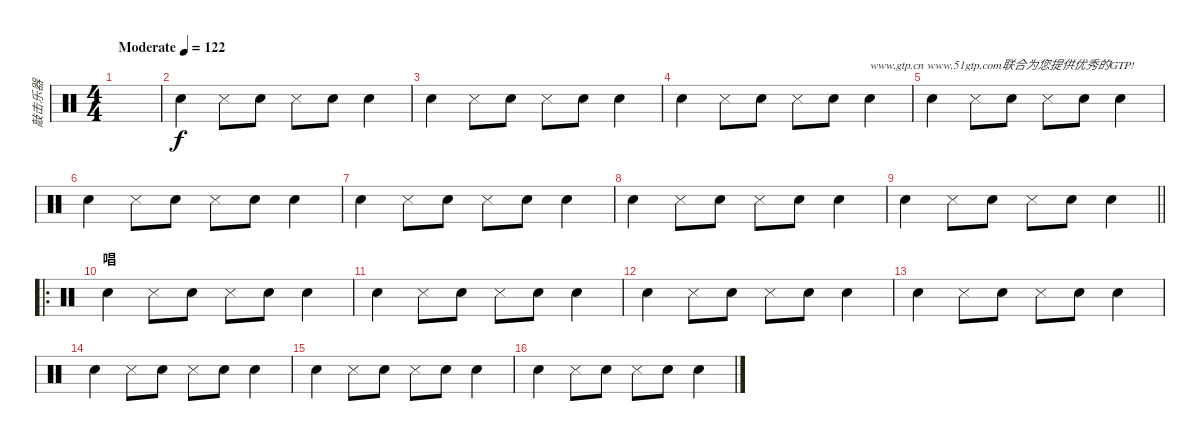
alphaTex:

\track ("敲击乐器" "敲击乐器") {instrument percussion}
\staff {score}
\articulation defaults
\ts (4 4)
\tempo (122 "Moderate")
\clef neutral
\ks c
|
"Snare (hit) 2".4 "Snare (side stick) 3".8 "Snare (hit) 2".8 "Snare (side stick) 3".8 "Snare (hit) 2".8 "Snare (hit) 2".4 |
"Snare (hit) 2".4 "Snare (side stick) 3".8 "Snare (hit) 2".8 "Snare (side stick) 3".8 "Snare (hit) 2".8 "Snare (hit) 2".4 |
"Snare (hit) 2".4 "Snare (side stick) 3".8 "Snare (hit) 2".8 "Snare (side stick) 3".8 "Snare (hit) 2".8 "Snare (hit) 2".4{txt "www.gtp.cn www.51gtp.com联合为您提供优秀的GTP!"} |
"Snare (hit) 2".4 "Snare (side stick) 3".8 "Snare (hit) 2".8 "Snare (side stick) 3".8 "Snare (hit) 2".8 "Snare (hit) 2".4 |
"Snare (hit) 2".4 "Snare (side stick) 3".8 "Snare (hit) 2".8 "Snare (side stick) 3".8 "Snare (hit) 2".8 "Snare (hit) 2".4 |
"Snare (hit) 2".4 "Snare (side stick) 3".8 "Snare (hit) 2".8 "Snare (side stick) 3".8 "Snare (hit) 2".8 "Snare (hit) 2".4 |
"Snare (hit) 2".4 "Snare (side stick) 3".8 "Snare (hit) 2".8 "Snare (side stick) 3".8 "Snare (hit) 2".8 "Snare (hit) 2".4 |
\barLineRight lightlight "Snare (hit) 2".4 "Snare (side stick) 3".8 "Snare (hit) 2".8 "Snare (side stick) 3".8 "Snare (hit) 2".8 "Snare (hit) 2".4
|
\ro
\section ("" "唱")
"Snare (hit) 2".4 "Snare (side stick) 3".8 "Snare (hit) 2".8 "Snare (side stick) 3".8 "Snare (hit) 2".8 "Snare (hit) 2".4 |
"Snare (hit) 2".4 "Snare (side stick) 3".8 "Snare (hit) 2".8 "Snare (side stick) 3".8 "Snare (hit) 2".8 "Snare (hit) 2".4 |
"Snare (hit) 2".4 "Snare (side stick) 3".8 "Snare (hit) 2".8 "Snare (side stick) 3".8 "Snare (hit) 2".8 "Snare (hit) 2".4 |
"Snare (hit) 2".4 "Snare (side stick) 3".8 "Snare (hit) 2".8 "Snare (side stick) 3".8 "Snare (hit) 2".8 "Snare (hit) 2".4 |
"Snare (hit) 2".4 "Snare (side stick) 3".8 "Snare (hit) 2".8 "Snare (side stick) 3".8 "Snare (hit) 2".8 "Snare (hit) 2".4 |
"Snare (hit) 2".4 "Snare (side stick) 3".8 "Snare (hit) 2".8 "Snare (side stick) 3".8 "Snare (hit) 2".8 "Snare (hit) 2".4 |
"Snare (hit) 2".4 "Snare (side stick) 3".8 "Snare (hit) 2".8 "Snare (side stick) 3".8 "Snare (hit) 2".8 "Snare (hit) 2".4
